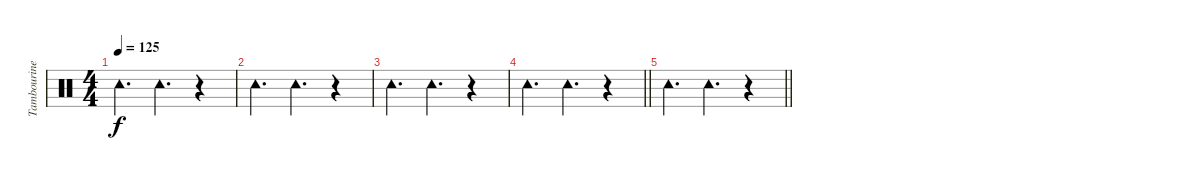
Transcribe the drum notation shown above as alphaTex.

\track ("Tambourine" "Tambourine") {instrument percussion}
\staff {score}
\articulation defaults
\ts (4 4)
\tempo 125
\clef neutral
\ks c "Tambourine (hit)".4{d dy f} "Tambourine (hit)".4{d}
r.4 |
"Tambourine (hit)".4{d} "Tambourine (hit)".4{d} r.4 |
"Tambourine (hit)".4{d} "Tambourine (hit)".4{d} r.4 |
\barLineRight lightlight "Tambourine (hit)".4{d} "Tambourine (hit)".4{d}
r.4 |
\barLineRight lightlight "Tambourine (hit)".4{d} "Tambourine (hit)".4{d}
r.4
